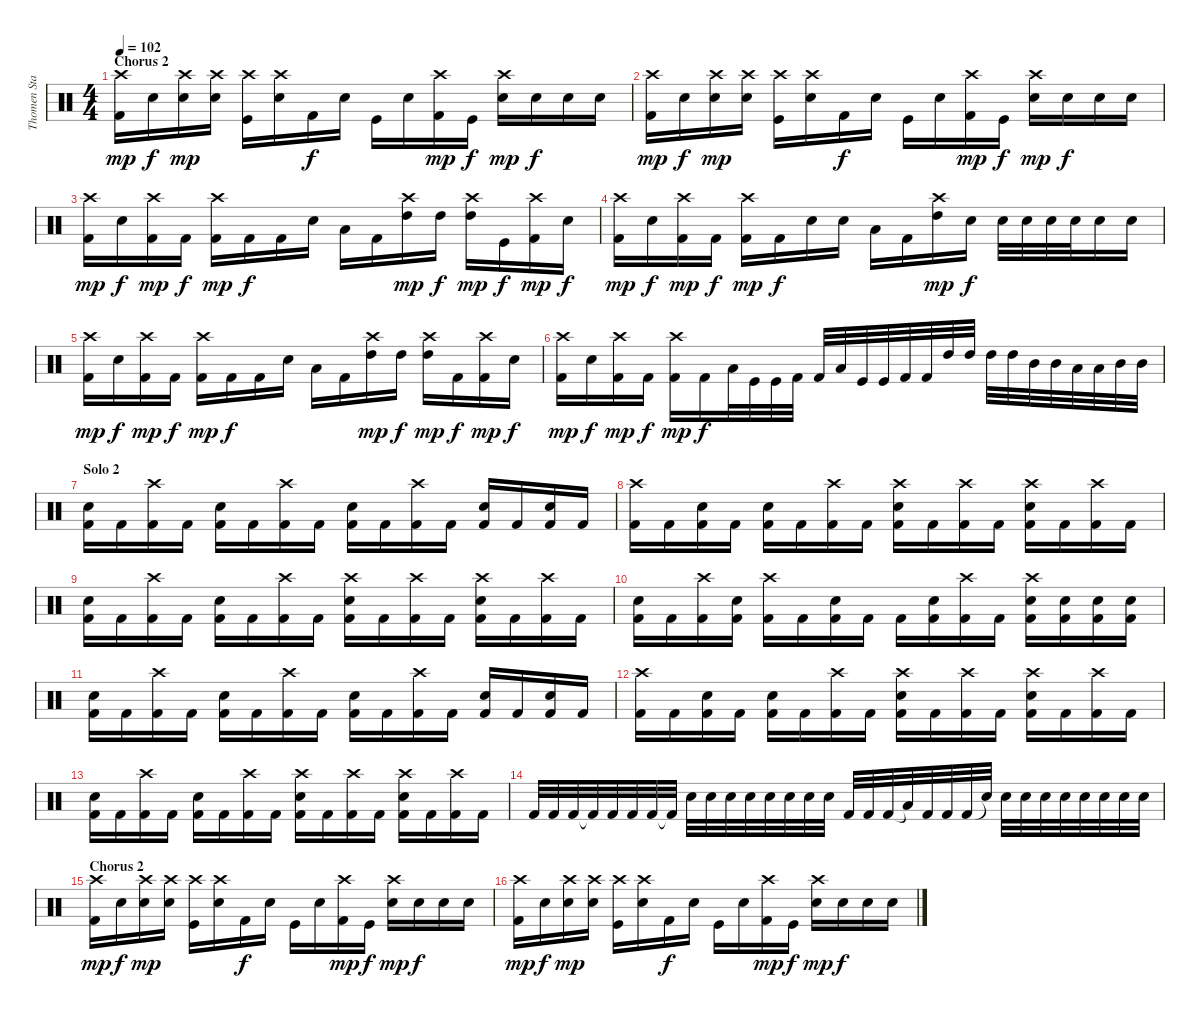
\track ("Thomen Stauch" "Thomen Sta") {instrument percussion}
\staff {score}
\articulation defaults
\ts (4 4)
\section ("" "Chorus 2")
\tempo 102
\clef neutral
\ks c
("Crash high (hit)" "Kick (hit) 2").16{dy mp} "Snare (hit)"{x}.16{dy f} ("Crash high (hit)" "Snare (hit)"{x}).16{dy mp} ("Crash high (hit)" "Snare (hit)"{x}).16 ("Crash high (hit)" "Kick (hit)"{x}).16 ("Crash high (hit)" "Snare (hit)"{x}).16 "Kick (hit) 2".16{dy f} "Snare (hit)"{x}.16 "Kick (hit)"{x}.16 "Snare (hit)"{x}.16 ("Crash high (hit)" "Kick (hit) 2").16{dy mp} "Kick (hit)"{x}.16{dy f} ("Crash high (hit)" "Snare (hit) 2").16{dy mp} "Snare (hit)"{x}.16{dy f} "Snare (hit)"{x}.16 "Snare (hit)"{x}.16 |
("Crash high (hit)" "Kick (hit) 2").16{dy mp} "Snare (hit)"{x}.16{dy f} ("Crash high (hit)" "Snare (hit) 2").16{dy mp} ("Crash high (hit)" "Snare (hit)"{x}).16 ("Crash high (hit)" "Kick (hit)"{x}).16 ("Crash high (hit)" "Snare (hit)"{x}).16 "Kick (hit) 2".16{dy f} "Snare (hit)"{x}.16 "Kick (hit)"{x}.16 "Snare (hit)"{x}.16 ("Crash high (hit)" "Kick (hit) 2").16{dy mp} "Kick (hit)"{x}.16{dy f} ("Crash high (hit)" "Snare (hit) 2").16{dy mp} "Snare (hit)"{x}.16{dy f} "Snare (hit)"{x}.16 "Snare (hit)"{x}.16 |
("Crash high (hit)" "Kick (hit) 2").16{dy mp} "Snare (hit)"{x}.16{dy f} ("Crash high (hit)" "Kick (hit) 2").16{dy mp} "Kick (hit) 2".16{dy f} ("Crash high (hit)" "Kick (hit) 2").16{dy mp} "Kick (hit) 2".16{dy f} "Kick (hit) 2".16 "Snare (hit)"{x}.16 "Low Floor Tom (hit)"{x}.16 "Kick (hit) 2".16 ("Crash high (hit)" "High Tom (hit)").16{dy mp} "High Tom (hit)"{x}.16{dy f} ("Crash high (hit)" "High Tom (hit)").16{dy mp} "Kick (hit)".16{dy f} ("Crash high (hit)" "Kick (hit) 2").16{dy mp} "Snare (hit)"{x}.16{dy f} |
("Crash high (hit)" "Kick (hit) 2").16{dy mp} "Snare (hit)"{x}.16{dy f} ("Crash high (hit)" "Kick (hit) 2").16{dy mp} "Kick (hit) 2"{x}.16{dy f} ("Crash high (hit)" "Kick (hit) 2").16{dy mp} "Kick (hit) 2"{x}.16{dy f} "Snare (hit) 2".16 "Snare (hit)"{x}.16 "Low Floor Tom (hit)"{x}.16 "Kick (hit) 2".16 ("Crash high (hit)" "High Tom (hit)").16{dy mp} "Snare (hit) 2"{x}.16{dy f} "Snare (hit) 2".32 "Snare (hit) 2".32 "Snare (hit) 2".32 "Snare (hit) 2".32 "Snare (hit) 2".16 "Snare (hit) 2".16 |
("Crash high (hit)" "Kick (hit) 2").16{dy mp} "Snare (hit)"{x}.16{dy f} ("Crash high (hit)" "Kick (hit) 2").16{dy mp} "Kick (hit) 2".16{dy f} ("Crash high (hit)" "Kick (hit) 2").16{dy mp} "Kick (hit) 2".16{dy f} "Kick (hit) 2".16 "Snare (hit)"{x}.16 "Low Floor Tom (hit)"{x}.16 "Kick (hit) 2".16 ("Crash high (hit)" "High Tom (hit)").16{dy mp} "High Tom (hit)"{x}.16{dy f} ("Crash high (hit)" "High Tom (hit)").16{dy mp} "Kick (hit) 2".16{dy f} ("Crash high (hit)" "Kick (hit) 2").16{dy mp} "Snare (hit)"{x}.16{dy f} |
("Crash high (hit)" "Kick (hit) 2").16{dy mp} "Snare (hit)"{x}.16{dy f} ("Crash high (hit)" "Kick (hit) 2").16{dy mp} "Kick (hit) 2"{x}.16{dy f} ("Crash high (hit)" "Kick (hit) 2").16{dy mp} "Kick (hit) 2"{x}.16{dy f} "Low Floor Tom (hit)".32 "Kick (hit)".32 "Kick (hit)".32 "Kick (hit) 2".32 "Kick (hit) 2".32 "Low Floor Tom (hit)".32 "Kick (hit)".32 "Kick (hit)".32 "Kick (hit) 2".32 "Kick (hit) 2".32 "High Tom (hit)".32 "High Tom (hit)".32 "High Tom (hit)".32 "High Tom (hit)".32 "Mid Tom (hit)".32 "Mid Tom (hit)".32 "Low Floor Tom (hit)".32 "Low Floor Tom (hit)".32 "Mid Tom (hit)".32 "Mid Tom (hit)".32 |
\section ("" "Solo 2")
("Snare (hit) 2" "Kick (hit) 2").16 "Kick (hit) 2".16 ("Crash high (hit)" "Kick (hit) 2").16 "Kick (hit) 2".16 ("Snare (hit) 2" "Kick (hit) 2").16 "Kick (hit) 2".16 ("Crash high (hit)" "Kick (hit) 2").16 "Kick (hit) 2".16 ("Snare (hit) 2" "Kick (hit) 2").16 "Kick (hit) 2".16 ("Crash high (hit)" "Kick (hit) 2").16 "Kick (hit) 2".16 ("Snare (hit) 2" "Kick (hit) 2").16 "Kick (hit) 2".16 ("Snare (hit) 2" "Kick (hit) 2").16 "Kick (hit) 2".16 |
("Crash high (hit)" "Kick (hit) 2").16 "Kick (hit) 2".16 ("Snare (hit) 2" "Kick (hit) 2").16 "Kick (hit) 2".16 ("Snare (hit) 2" "Kick (hit) 2").16 "Kick (hit) 2".16 ("Crash high (hit)" "Kick (hit) 2").16 "Kick (hit) 2".16 ("Crash high (hit)" "Snare (hit) 2" "Kick (hit) 2").16 "Kick (hit) 2".16 ("Crash high (hit)" "Kick (hit) 2").16 "Kick (hit) 2".16 ("Crash high (hit)" "Snare (hit) 2" "Kick (hit) 2").16 "Kick (hit) 2".16 ("Crash high (hit)" "Kick (hit) 2").16 "Kick (hit) 2".16 |
("Snare (hit) 2" "Kick (hit) 2").16 "Kick (hit) 2".16 ("Crash high (hit)" "Kick (hit) 2").16 "Kick (hit) 2".16 ("Snare (hit) 2" "Kick (hit) 2").16 "Kick (hit) 2".16 ("Crash high (hit)" "Kick (hit) 2").16 "Kick (hit) 2".16 ("Crash high (hit)" "Snare (hit) 2" "Kick (hit) 2").16 "Kick (hit) 2".16 ("Crash high (hit)" "Kick (hit) 2").16 "Kick (hit) 2".16 ("Crash high (hit)" "Snare (hit) 2" "Kick (hit) 2").16 "Kick (hit) 2".16 ("Crash high (hit)" "Kick (hit) 2").16 "Kick (hit) 2".16 |
("Snare (hit) 2" "Kick (hit) 2").16 "Kick (hit) 2".16 ("Crash high (hit)" "Kick (hit) 2").16 ("Snare (hit) 2" "Kick (hit) 2").16 ("Crash high (hit)" "Kick (hit) 2").16 "Kick (hit) 2".16 ("Snare (hit) 2" "Kick (hit) 2").16 "Kick (hit) 2".16 "Kick (hit) 2".16 ("Snare (hit) 2" "Kick (hit) 2").16 ("Crash high (hit)" "Kick (hit) 2").16 "Kick (hit) 2".16 ("Crash high (hit)" "Snare (hit) 2" "Kick (hit) 2").16 ("Snare (hit) 2" "Kick (hit) 2").16 ("Snare (hit) 2" "Kick (hit) 2").16 ("Snare (hit) 2" "Kick (hit) 2").16 |
("Snare (hit) 2" "Kick (hit) 2").16 "Kick (hit) 2".16 ("Crash high (hit)" "Kick (hit) 2").16 "Kick (hit) 2".16 ("Snare (hit) 2" "Kick (hit) 2").16 "Kick (hit) 2".16 ("Crash high (hit)" "Kick (hit) 2").16 "Kick (hit) 2".16 ("Snare (hit) 2" "Kick (hit) 2").16 "Kick (hit) 2".16 ("Crash high (hit)" "Kick (hit) 2").16 "Kick (hit) 2".16 ("Snare (hit) 2" "Kick (hit) 2").16 "Kick (hit) 2".16 ("Snare (hit) 2" "Kick (hit) 2").16 "Kick (hit) 2".16 |
("Crash high (hit)" "Kick (hit) 2").16 "Kick (hit) 2".16 ("Snare (hit) 2" "Kick (hit) 2").16 "Kick (hit) 2".16 ("Snare (hit) 2" "Kick (hit) 2").16 "Kick (hit) 2".16 ("Crash high (hit)" "Kick (hit) 2").16 "Kick (hit) 2".16 ("Crash high (hit)" "Snare (hit) 2" "Kick (hit) 2").16 "Kick (hit) 2".16 ("Crash high (hit)" "Kick (hit) 2").16 "Kick (hit) 2".16 ("Crash high (hit)" "Snare (hit) 2" "Kick (hit) 2").16 "Kick (hit) 2".16 ("Crash high (hit)" "Kick (hit) 2").16 "Kick (hit) 2".16 |
("Snare (hit) 2" "Kick (hit) 2").16 "Kick (hit) 2".16 ("Crash high (hit)" "Kick (hit) 2").16 "Kick (hit) 2".16 ("Snare (hit) 2" "Kick (hit) 2").16 "Kick (hit) 2".16 ("Crash high (hit)" "Kick (hit) 2").16 "Kick (hit) 2".16 ("Crash high (hit)" "Snare (hit) 2" "Kick (hit) 2").16 "Kick (hit) 2".16 ("Crash high (hit)" "Kick (hit) 2").16 "Kick (hit) 2".16 ("Crash high (hit)" "Snare (hit) 2" "Kick (hit) 2").16 "Kick (hit) 2".16 ("Crash high (hit)" "Kick (hit) 2").16 "Kick (hit) 2".16 |
"Kick (hit) 2".32 "Kick (hit) 2".32 "Kick (hit) 2".32 "Kick (hit) 2"{t}.32 "Kick (hit) 2".32 "Kick (hit) 2".32 "Kick (hit) 2".32 "Kick (hit) 2"{t}.32 "Snare (hit) 2".32 "Snare (hit) 2".32 "Snare (hit) 2".32 "Snare (hit) 2".32 "Snare (hit) 2".32 "Snare (hit) 2".32 "Snare (hit) 2".32 "Snare (hit) 2".32 "Kick (hit) 2".32 "Kick (hit) 2".32 "Kick (hit) 2".32 "Low Floor Tom (hit)"{t}.32 "Kick (hit) 2".32 "Kick (hit) 2".32 "Kick (hit) 2".32 "Snare (hit)"{t}.32 "Snare (hit) 2".32 "Snare (hit) 2".32 "Snare (hit) 2".32 "Snare (hit) 2".32 "Snare (hit) 2".32 "Snare (hit) 2".32 "Snare (hit) 2".32 "Snare (hit) 2".32 |
\section ("" "Chorus 2")
("Crash high (hit)" "Kick (hit) 2").16{dy mp} "Snare (hit)"{x}.16{dy f} ("Crash high (hit)" "Snare (hit)"{x}).16{dy mp} ("Crash high (hit)" "Snare (hit)"{x}).16 ("Crash high (hit)" "Kick (hit)"{x}).16 ("Crash high (hit)" "Snare (hit)"{x}).16 "Kick (hit) 2".16{dy f} "Snare (hit)"{x}.16 "Kick (hit)"{x}.16 "Snare (hit)"{x}.16 ("Crash high (hit)" "Kick (hit) 2").16{dy mp} "Kick (hit)"{x}.16{dy f} ("Crash high (hit)" "Snare (hit) 2").16{dy mp} "Snare (hit)"{x}.16{dy f} "Snare (hit)"{x}.16 "Snare (hit)"{x}.16 |
("Crash high (hit)" "Kick (hit) 2").16{dy mp} "Snare (hit)"{x}.16{dy f} ("Crash high (hit)" "Snare (hit) 2").16{dy mp} ("Crash high (hit)" "Snare (hit)"{x}).16 ("Crash high (hit)" "Kick (hit)"{x}).16 ("Crash high (hit)" "Snare (hit)"{x}).16 "Kick (hit) 2".16{dy f} "Snare (hit)"{x}.16 "Kick (hit)"{x}.16 "Snare (hit)"{x}.16 ("Crash high (hit)" "Kick (hit) 2").16{dy mp} "Kick (hit)"{x}.16{dy f} ("Crash high (hit)" "Snare (hit) 2").16{dy mp} "Snare (hit)"{x}.16{dy f} "Snare (hit)"{x}.16 "Snare (hit)"{x}.16
